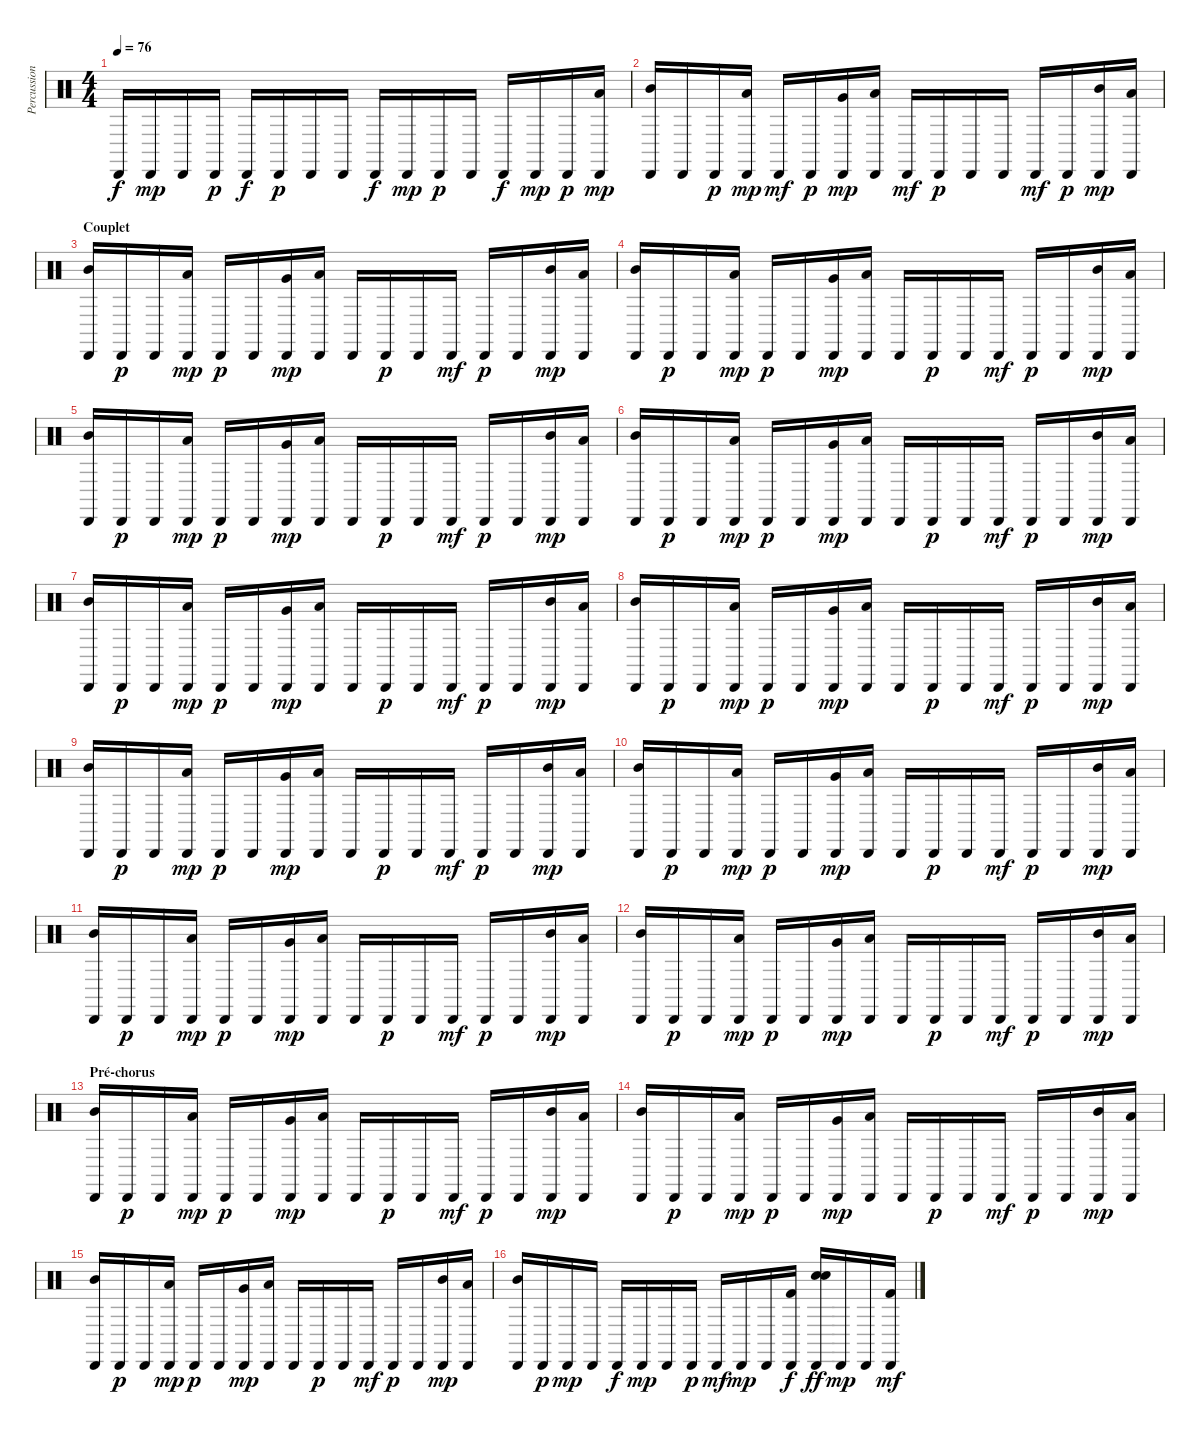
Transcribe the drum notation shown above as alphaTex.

\track ("Percussions" "Percussion") {instrument percussion}
\staff {score}
\articulation defaults
\ts (4 4)
\tempo 76
\clef neutral
\ks c "Cabasa (hit)".16{dy f volume 2} "Cabasa (hit)".16{dy mp} "Cabasa (hit)".16 "Cabasa (hit)".16{dy p} "Cabasa (hit)".16{dy f} "Cabasa (hit)".16{dy p} "Cabasa (hit)".16 "Cabasa (hit)".16 "Cabasa (hit)".16{dy f volume 6} "Cabasa (hit)".16{dy mp} "Cabasa (hit)".16{dy p} "Cabasa (hit)".16 "Cabasa (hit)".16{dy f} "Cabasa (hit)".16{dy mp} "Cabasa (hit)".16{dy p}
("Cabasa (hit)" "Low Floor Tom (hit)").16{dy mp} |
("Cabasa (hit)" "Mid Tom (hit)").16 "Cabasa (hit)".16{volume 9} "Cabasa (hit)".16{dy p} ("Cabasa (hit)" "Low Tom (hit)").16{dy mp} "Cabasa (hit)".16{dy mf} "Cabasa (hit)".16{dy p} ("Cabasa (hit)" "Very Low Tom (hit)").16{dy mp} ("Cabasa (hit)" "Low Floor Tom (hit)").16 "Cabasa (hit)".16{dy mf} "Cabasa (hit)".16{dy p} "Cabasa (hit)".16 "Cabasa (hit)".16 "Cabasa (hit)".16{dy mf} "Cabasa (hit)".16{dy p} ("Cabasa (hit)" "Mid Tom (hit)").16{dy mp} ("Cabasa (hit)" "Low Floor Tom (hit)").16 |
\section ("" "Couplet")
("Cabasa (hit)" "Mid Tom (hit)").16{volume 14} "Cabasa (hit)".16{dy p} "Cabasa (hit)".16 ("Cabasa (hit)" "Low Tom (hit)").16{dy mp} "Cabasa (hit)".16{dy p} "Cabasa (hit)".16 ("Cabasa (hit)" "Very Low Tom (hit)").16{dy mp} ("Cabasa (hit)" "Low Floor Tom (hit)").16 "Cabasa (hit)".16{volume 16} "Cabasa (hit)".16{dy p} "Cabasa (hit)".16 "Cabasa (hit)".16{dy mf} "Cabasa (hit)".16{dy p} "Cabasa (hit)".16 ("Cabasa (hit)" "Mid Tom (hit)").16{dy mp} ("Cabasa (hit)" "Low Floor Tom (hit)").16 |
("Cabasa (hit)" "Mid Tom (hit)").16 "Cabasa (hit)".16{dy p} "Cabasa (hit)".16 ("Cabasa (hit)" "Low Tom (hit)").16{dy mp} "Cabasa (hit)".16{dy p} "Cabasa (hit)".16 ("Cabasa (hit)" "Very Low Tom (hit)").16{dy mp} ("Cabasa (hit)" "Low Floor Tom (hit)").16 "Cabasa (hit)".16 "Cabasa (hit)".16{dy p} "Cabasa (hit)".16 "Cabasa (hit)".16{dy mf} "Cabasa (hit)".16{dy p} "Cabasa (hit)".16 ("Cabasa (hit)" "Mid Tom (hit)").16{dy mp} ("Cabasa (hit)" "Low Floor Tom (hit)").16 |
("Cabasa (hit)" "Mid Tom (hit)").16 "Cabasa (hit)".16{dy p} "Cabasa (hit)".16 ("Cabasa (hit)" "Low Tom (hit)").16{dy mp} "Cabasa (hit)".16{dy p} "Cabasa (hit)".16 ("Cabasa (hit)" "Very Low Tom (hit)").16{dy mp} ("Cabasa (hit)" "Low Floor Tom (hit)").16 "Cabasa (hit)".16 "Cabasa (hit)".16{dy p} "Cabasa (hit)".16 "Cabasa (hit)".16{dy mf} "Cabasa (hit)".16{dy p} "Cabasa (hit)".16 ("Cabasa (hit)" "Mid Tom (hit)").16{dy mp} ("Cabasa (hit)" "Low Floor Tom (hit)").16 |
("Cabasa (hit)" "Mid Tom (hit)").16 "Cabasa (hit)".16{dy p} "Cabasa (hit)".16 ("Cabasa (hit)" "Low Tom (hit)").16{dy mp} "Cabasa (hit)".16{dy p} "Cabasa (hit)".16 ("Cabasa (hit)" "Very Low Tom (hit)").16{dy mp} ("Cabasa (hit)" "Low Floor Tom (hit)").16 "Cabasa (hit)".16 "Cabasa (hit)".16{dy p} "Cabasa (hit)".16 "Cabasa (hit)".16{dy mf} "Cabasa (hit)".16{dy p} "Cabasa (hit)".16 ("Cabasa (hit)" "Mid Tom (hit)").16{dy mp} ("Cabasa (hit)" "Low Floor Tom (hit)").16 |
("Cabasa (hit)" "Mid Tom (hit)").16 "Cabasa (hit)".16{dy p} "Cabasa (hit)".16 ("Cabasa (hit)" "Low Tom (hit)").16{dy mp} "Cabasa (hit)".16{dy p} "Cabasa (hit)".16 ("Cabasa (hit)" "Very Low Tom (hit)").16{dy mp} ("Cabasa (hit)" "Low Floor Tom (hit)").16 "Cabasa (hit)".16 "Cabasa (hit)".16{dy p} "Cabasa (hit)".16 "Cabasa (hit)".16{dy mf} "Cabasa (hit)".16{dy p} "Cabasa (hit)".16 ("Cabasa (hit)" "Mid Tom (hit)").16{dy mp} ("Cabasa (hit)" "Low Floor Tom (hit)").16 |
("Cabasa (hit)" "Mid Tom (hit)").16 "Cabasa (hit)".16{dy p} "Cabasa (hit)".16 ("Cabasa (hit)" "Low Tom (hit)").16{dy mp} "Cabasa (hit)".16{dy p} "Cabasa (hit)".16 ("Cabasa (hit)" "Very Low Tom (hit)").16{dy mp} ("Cabasa (hit)" "Low Floor Tom (hit)").16 "Cabasa (hit)".16 "Cabasa (hit)".16{dy p} "Cabasa (hit)".16 "Cabasa (hit)".16{dy mf} "Cabasa (hit)".16{dy p} "Cabasa (hit)".16 ("Cabasa (hit)" "Mid Tom (hit)").16{dy mp} ("Cabasa (hit)" "Low Floor Tom (hit)").16 |
("Cabasa (hit)" "Mid Tom (hit)").16 "Cabasa (hit)".16{dy p} "Cabasa (hit)".16 ("Cabasa (hit)" "Low Tom (hit)").16{dy mp} "Cabasa (hit)".16{dy p} "Cabasa (hit)".16 ("Cabasa (hit)" "Very Low Tom (hit)").16{dy mp} ("Cabasa (hit)" "Low Floor Tom (hit)").16 "Cabasa (hit)".16 "Cabasa (hit)".16{dy p} "Cabasa (hit)".16 "Cabasa (hit)".16{dy mf} "Cabasa (hit)".16{dy p} "Cabasa (hit)".16 ("Cabasa (hit)" "Mid Tom (hit)").16{dy mp} ("Cabasa (hit)" "Low Floor Tom (hit)").16 |
("Cabasa (hit)" "Mid Tom (hit)").16 "Cabasa (hit)".16{dy p} "Cabasa (hit)".16 ("Cabasa (hit)" "Low Tom (hit)").16{dy mp} "Cabasa (hit)".16{dy p} "Cabasa (hit)".16 ("Cabasa (hit)" "Very Low Tom (hit)").16{dy mp} ("Cabasa (hit)" "Low Floor Tom (hit)").16 "Cabasa (hit)".16 "Cabasa (hit)".16{dy p} "Cabasa (hit)".16 "Cabasa (hit)".16{dy mf} "Cabasa (hit)".16{dy p} "Cabasa (hit)".16 ("Cabasa (hit)" "Mid Tom (hit)").16{dy mp} ("Cabasa (hit)" "Low Floor Tom (hit)").16 |
("Cabasa (hit)" "Mid Tom (hit)").16 "Cabasa (hit)".16{dy p} "Cabasa (hit)".16 ("Cabasa (hit)" "Low Tom (hit)").16{dy mp} "Cabasa (hit)".16{dy p} "Cabasa (hit)".16 ("Cabasa (hit)" "Very Low Tom (hit)").16{dy mp} ("Cabasa (hit)" "Low Floor Tom (hit)").16 "Cabasa (hit)".16 "Cabasa (hit)".16{dy p} "Cabasa (hit)".16 "Cabasa (hit)".16{dy mf} "Cabasa (hit)".16{dy p} "Cabasa (hit)".16 ("Cabasa (hit)" "Mid Tom (hit)").16{dy mp} ("Cabasa (hit)" "Low Floor Tom (hit)").16 |
("Cabasa (hit)" "Mid Tom (hit)").16 "Cabasa (hit)".16{dy p} "Cabasa (hit)".16 ("Cabasa (hit)" "Low Tom (hit)").16{dy mp} "Cabasa (hit)".16{dy p} "Cabasa (hit)".16 ("Cabasa (hit)" "Very Low Tom (hit)").16{dy mp} ("Cabasa (hit)" "Low Floor Tom (hit)").16 "Cabasa (hit)".16 "Cabasa (hit)".16{dy p} "Cabasa (hit)".16 "Cabasa (hit)".16{dy mf} "Cabasa (hit)".16{dy p} "Cabasa (hit)".16 ("Cabasa (hit)" "Mid Tom (hit)").16{dy mp} ("Cabasa (hit)" "Low Floor Tom (hit)").16 |
\section ("" "Pré-chorus")
("Cabasa (hit)" "Mid Tom (hit)").16 "Cabasa (hit)".16{dy p} "Cabasa (hit)".16 ("Cabasa (hit)" "Low Tom (hit)").16{dy mp} "Cabasa (hit)".16{dy p} "Cabasa (hit)".16 ("Cabasa (hit)" "Very Low Tom (hit)").16{dy mp} ("Cabasa (hit)" "Low Floor Tom (hit)").16 "Cabasa (hit)".16 "Cabasa (hit)".16{dy p} "Cabasa (hit)".16 "Cabasa (hit)".16{dy mf} "Cabasa (hit)".16{dy p} "Cabasa (hit)".16 ("Cabasa (hit)" "Mid Tom (hit)").16{dy mp} ("Cabasa (hit)" "Low Floor Tom (hit)").16 |
("Cabasa (hit)" "Mid Tom (hit)").16 "Cabasa (hit)".16{dy p} "Cabasa (hit)".16 ("Cabasa (hit)" "Low Tom (hit)").16{dy mp} "Cabasa (hit)".16{dy p} "Cabasa (hit)".16 ("Cabasa (hit)" "Very Low Tom (hit)").16{dy mp} ("Cabasa (hit)" "Low Floor Tom (hit)").16 "Cabasa (hit)".16 "Cabasa (hit)".16{dy p} "Cabasa (hit)".16 "Cabasa (hit)".16{dy mf} "Cabasa (hit)".16{dy p} "Cabasa (hit)".16 ("Cabasa (hit)" "Mid Tom (hit)").16{dy mp} ("Cabasa (hit)" "Low Floor Tom (hit)").16 |
("Cabasa (hit)" "Mid Tom (hit)").16 "Cabasa (hit)".16{dy p} "Cabasa (hit)".16 ("Cabasa (hit)" "Low Tom (hit)").16{dy mp} "Cabasa (hit)".16{dy p} "Cabasa (hit)".16 ("Cabasa (hit)" "Very Low Tom (hit)").16{dy mp} ("Cabasa (hit)" "Low Floor Tom (hit)").16 "Cabasa (hit)".16 "Cabasa (hit)".16{dy p} "Cabasa (hit)".16 "Cabasa (hit)".16{dy mf} "Cabasa (hit)".16{dy p} "Cabasa (hit)".16 ("Cabasa (hit)" "Mid Tom (hit)").16{dy mp} ("Cabasa (hit)" "Low Floor Tom (hit)").16 |
("Cabasa (hit)" "Mid Tom (hit)").16 "Cabasa (hit)".16{dy p} "Cabasa (hit)".16{dy mp} "Cabasa (hit)".16 "Cabasa (hit)".16{dy f} "Cabasa (hit)".16{dy mp} "Cabasa (hit)".16 "Cabasa (hit)".16{dy p} "Cabasa (hit)".16{dy mf} "Cabasa (hit)".16{dy mp} "Cabasa (hit)".16 ("Cabasa (hit)" "Kick (hit) 2").16{dy f} ("Cabasa (hit)" "Electric Snare (hit)" "Snare (hit) 2").16{dy ff} "Cabasa (hit)".16{dy mp} "Cabasa (hit)".16 ("Cabasa (hit)" "Kick (hit) 2").16{dy mf}
